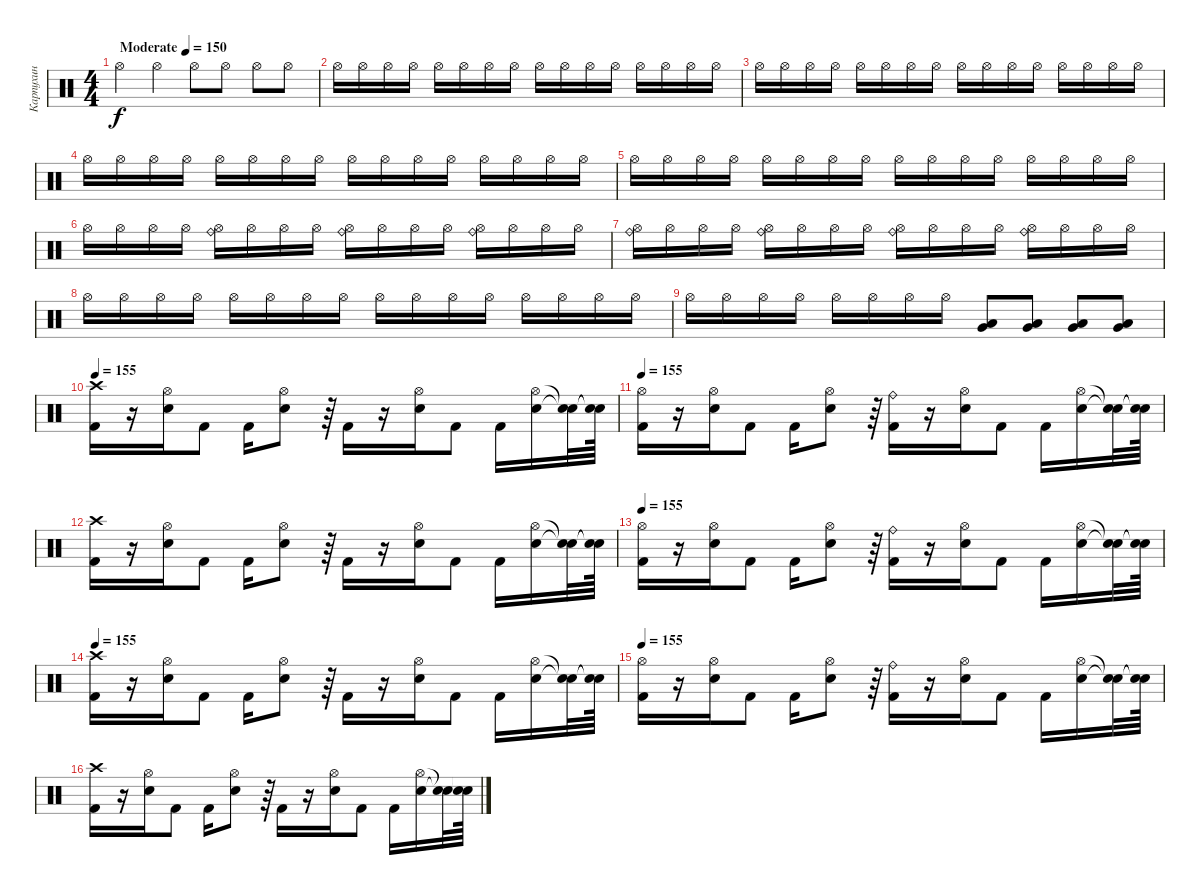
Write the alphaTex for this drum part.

\track ("Карпухин" "Карпухин") {instrument percussion}
\staff {score}
\articulation defaults
\ts (4 4)
\tempo (150 "Moderate")
\clef neutral
\ks c "Hi-Hat (open)".4{dy f} "Hi-Hat (open)".4 "Hi-Hat (open)".8 "Hi-Hat (open)".8 "Hi-Hat (open)".8 "Hi-Hat (open)".8
|
"Hi-Hat (open)".16 "Hi-Hat (open)".16 "Hi-Hat (open)".16 "Hi-Hat (open)".16 "Hi-Hat (open)".16 "Hi-Hat (open)".16 "Hi-Hat (open)".16 "Hi-Hat (open)".16 "Hi-Hat (open)".16 "Hi-Hat (open)".16 "Hi-Hat (open)".16 "Hi-Hat (open)".16 "Hi-Hat (open)".16 "Hi-Hat (open)".16 "Hi-Hat (open)".16 "Hi-Hat (open)".16 |
"Hi-Hat (open)".16 "Hi-Hat (open)".16 "Hi-Hat (open)".16 "Hi-Hat (open)".16 "Hi-Hat (open)".16 "Hi-Hat (open)".16 "Hi-Hat (open)".16 "Hi-Hat (open)".16 "Hi-Hat (open)".16 "Hi-Hat (open)".16 "Hi-Hat (open)".16 "Hi-Hat (open)".16 "Hi-Hat (open)".16 "Hi-Hat (open)".16 "Hi-Hat (open)".16 "Hi-Hat (open)".16 |
"Hi-Hat (open)".16 "Hi-Hat (open)".16 "Hi-Hat (open)".16 "Hi-Hat (open)".16 "Hi-Hat (open)".16 "Hi-Hat (open)".16 "Hi-Hat (open)".16 "Hi-Hat (open)".16 "Hi-Hat (open)".16 "Hi-Hat (open)".16 "Hi-Hat (open)".16 "Hi-Hat (open)".16 "Hi-Hat (open)".16 "Hi-Hat (open)".16 "Hi-Hat (open)".16 "Hi-Hat (open)".16 |
"Hi-Hat (open)".16 "Hi-Hat (open)".16 "Hi-Hat (open)".16 "Hi-Hat (open)".16 "Hi-Hat (open)".16 "Hi-Hat (open)".16 "Hi-Hat (open)".16 "Hi-Hat (open)".16 "Hi-Hat (open)".16 "Hi-Hat (open)".16 "Hi-Hat (open)".16 "Hi-Hat (open)".16 "Hi-Hat (open)".16 "Hi-Hat (open)".16 "Hi-Hat (open)".16 "Hi-Hat (open)".16 |
"Hi-Hat (open)".16 "Hi-Hat (open)".16 "Hi-Hat (open)".16 "Hi-Hat (open)".16 ("Hi-Hat (open)" "Ride (bell)").16 "Hi-Hat (open)".16 "Hi-Hat (open)".16 "Hi-Hat (open)".16 ("Hi-Hat (open)" "Ride (bell)").16 "Hi-Hat (open)".16 "Hi-Hat (open)".16 "Hi-Hat (open)".16 ("Hi-Hat (open)" "Ride (bell)").16 "Hi-Hat (open)".16 "Hi-Hat (open)".16 "Hi-Hat (open)".16 |
("Hi-Hat (open)" "Ride (bell)").16 "Hi-Hat (open)".16 "Hi-Hat (open)".16 "Hi-Hat (open)".16 ("Hi-Hat (open)" "Ride (bell)").16 "Hi-Hat (open)".16 "Hi-Hat (open)".16 "Hi-Hat (open)".16 ("Hi-Hat (open)" "Ride (bell)").16 "Hi-Hat (open)".16 "Hi-Hat (open)".16 "Hi-Hat (open)".16 ("Hi-Hat (open)" "Ride (bell)").16 "Hi-Hat (open)".16 "Hi-Hat (open)".16 "Hi-Hat (open)".16 |
"Hi-Hat (open)".16 "Hi-Hat (open)".16 "Hi-Hat (open)".16 "Hi-Hat (open)".16 "Hi-Hat (open)".16 "Hi-Hat (open)".16 "Hi-Hat (open)".16 "Hi-Hat (open)".16 "Hi-Hat (open)".16 "Hi-Hat (open)".16 "Hi-Hat (open)".16 "Hi-Hat (open)".16 "Hi-Hat (open)".16 "Hi-Hat (open)".16 "Hi-Hat (open)".16 "Hi-Hat (open)".16 |
"Hi-Hat (open)".16 "Hi-Hat (open)".16 "Hi-Hat (open)".16 "Hi-Hat (open)".16 "Hi-Hat (open)".16 "Hi-Hat (open)".16 "Hi-Hat (open)".16 "Hi-Hat (open)".16 ("Low Tom (hit)" "Very Low Tom (hit)").8 ("Low Tom (hit)" "Very Low Tom (hit)").8 ("Low Tom (hit)" "Very Low Tom (hit)").8 ("Low Tom (hit)" "Very Low Tom (hit)").8 |
\tempo 155
("Kick (hit) 2" "Crash high (hit)").16 r.16 ("Electric Snare (hit)" "Hi-Hat (open)").16 "Kick (hit) 2".8 "Kick (hit) 2".16 ("Electric Snare (hit)" "Hi-Hat (open)").8 r.64 "Kick (hit) 2".16 r.16 ("Electric Snare (hit)" "Hi-Hat (open)").16 "Kick (hit) 2".8 "Kick (hit) 2".16 ("Electric Snare (hit)" "Hi-Hat (open)").16 ("Snare (hit)"{t} "Snare (hit)"{t}).32 ("Snare (hit)"{t} "Snare (hit)"{t}).64 |
\tempo 155
("Kick (hit) 2" "Hi-Hat (open)").16 r.16 ("Electric Snare (hit)" "Hi-Hat (open)").16 "Kick (hit) 2".8 "Kick (hit) 2".16 ("Electric Snare (hit)" "Hi-Hat (open)").8 r.64 ("Ride (bell)" "Kick (hit) 2").16 r.16 ("Electric Snare (hit)" "Hi-Hat (open)").16 "Kick (hit) 2".8 "Kick (hit) 2".16 ("Electric Snare (hit)" "Hi-Hat (open)").16 ("Snare (hit)"{t} "Snare (hit)"{t}).32 ("Snare (hit)"{t} "Snare (hit)"{t}).64 |
("Kick (hit) 2" "Crash high (hit)").16 r.16 ("Electric Snare (hit)" "Hi-Hat (open)").16 "Kick (hit) 2".8 "Kick (hit) 2".16 ("Electric Snare (hit)" "Hi-Hat (open)").8 r.64 "Kick (hit) 2".16 r.16 ("Electric Snare (hit)" "Hi-Hat (open)").16 "Kick (hit) 2".8 "Kick (hit) 2".16 ("Electric Snare (hit)" "Hi-Hat (open)").16 ("Snare (hit)"{t} "Snare (hit)"{t}).32 ("Snare (hit)"{t} "Snare (hit)"{t}).64 |
\tempo 155
("Kick (hit) 2" "Hi-Hat (open)").16 r.16 ("Electric Snare (hit)" "Hi-Hat (open)").16 "Kick (hit) 2".8 "Kick (hit) 2".16 ("Electric Snare (hit)" "Hi-Hat (open)").8 r.64 ("Ride (bell)" "Kick (hit) 2").16 r.16 ("Electric Snare (hit)" "Hi-Hat (open)").16 "Kick (hit) 2".8 "Kick (hit) 2".16 ("Electric Snare (hit)" "Hi-Hat (open)").16 ("Snare (hit)"{t} "Snare (hit)"{t}).32 ("Snare (hit)"{t} "Snare (hit)"{t}).64 |
\tempo 155
("Kick (hit) 2" "Crash high (hit)").16 r.16 ("Electric Snare (hit)" "Hi-Hat (open)").16 "Kick (hit) 2".8 "Kick (hit) 2".16 ("Electric Snare (hit)" "Hi-Hat (open)").8 r.64 "Kick (hit) 2".16 r.16 ("Electric Snare (hit)" "Hi-Hat (open)").16 "Kick (hit) 2".8 "Kick (hit) 2".16 ("Electric Snare (hit)" "Hi-Hat (open)").16 ("Snare (hit)"{t} "Snare (hit)"{t}).32 ("Snare (hit)"{t} "Snare (hit)"{t}).64 |
\tempo 155
("Kick (hit) 2" "Hi-Hat (open)").16 r.16 ("Electric Snare (hit)" "Hi-Hat (open)").16 "Kick (hit) 2".8 "Kick (hit) 2".16 ("Electric Snare (hit)" "Hi-Hat (open)").8 r.64 ("Ride (bell)" "Kick (hit) 2").16 r.16 ("Electric Snare (hit)" "Hi-Hat (open)").16 "Kick (hit) 2".8 "Kick (hit) 2".16 ("Electric Snare (hit)" "Hi-Hat (open)").16 ("Snare (hit)"{t} "Snare (hit)"{t}).32 ("Snare (hit)"{t} "Snare (hit)"{t}).64 |
("Kick (hit) 2" "Crash high (hit)").16 r.16 ("Electric Snare (hit)" "Hi-Hat (open)").16 "Kick (hit) 2".8 "Kick (hit) 2".16 ("Electric Snare (hit)" "Hi-Hat (open)").8 r.64 "Kick (hit) 2".16 r.16 ("Electric Snare (hit)" "Hi-Hat (open)").16 "Kick (hit) 2".8 "Kick (hit) 2".16 ("Electric Snare (hit)" "Hi-Hat (open)").16 ("Snare (hit)"{t} "Snare (hit)"{t}).32 ("Snare (hit)"{t} "Snare (hit)"{t}).64
